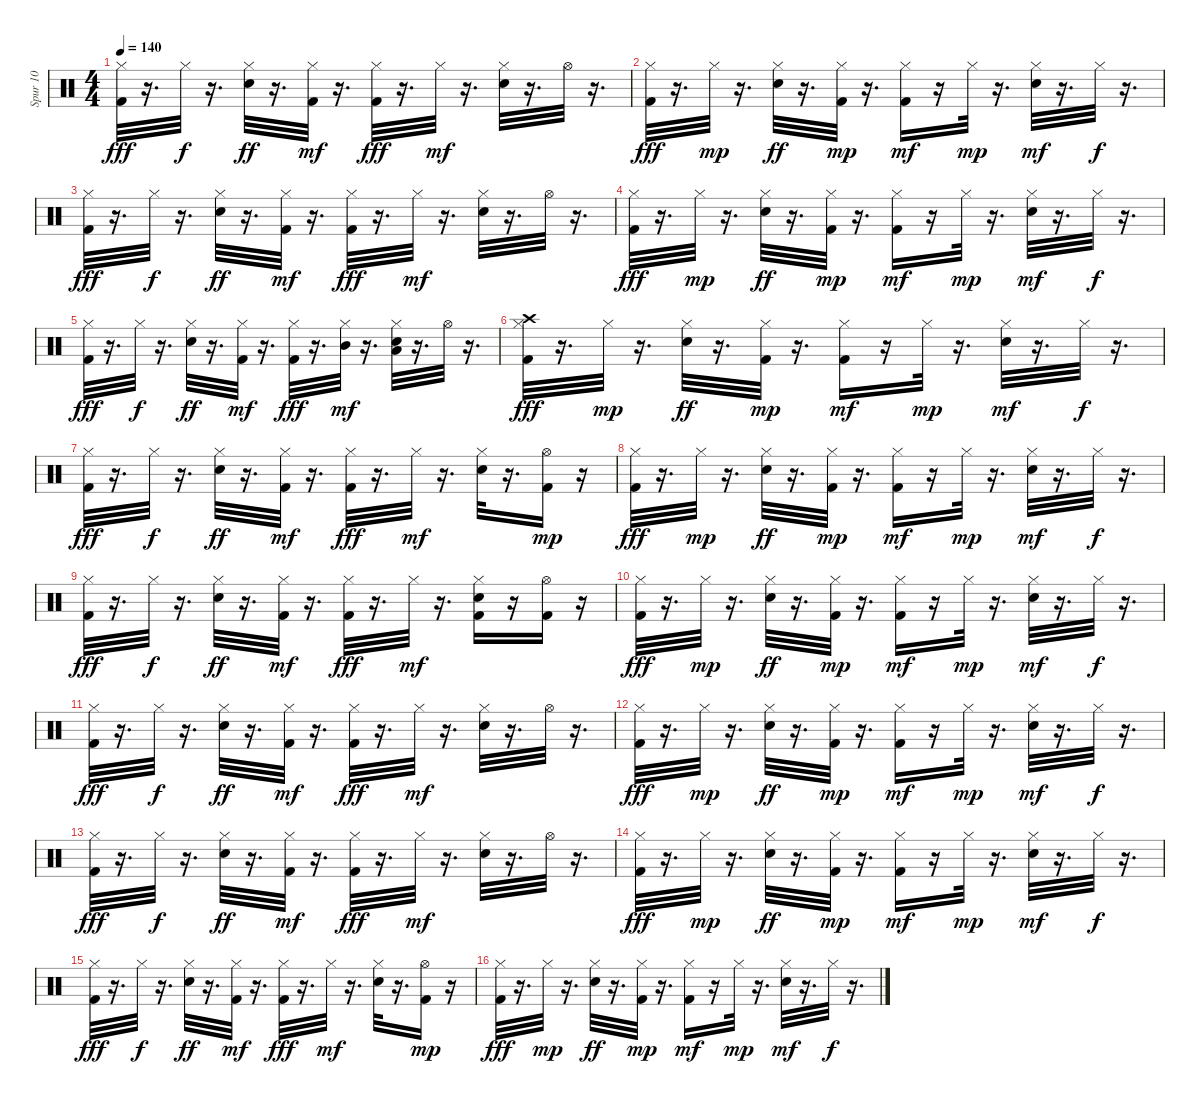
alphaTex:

\track ("Spur 10" "Spur 10") {instrument percussion}
\staff {score}
\articulation defaults
\ts (4 4)
\tempo 140
\clef neutral
\ks c
("Hi-Hat (closed)" "Kick (hit) 2").32{dy fff} r.16{d} "Hi-Hat (closed)".32{dy f} r.16{d} ("Hi-Hat (closed)" "Snare (hit) 2").32{dy ff} r.16{d} ("Kick (hit) 2" "Hi-Hat (closed)").32{dy mf} r.16{d} ("Hi-Hat (closed)" "Kick (hit) 2").32{dy fff} r.16{d} "Hi-Hat (closed)".32{dy mf} r.16{d} ("Snare (hit) 2" "Hi-Hat (closed)").32 r.16{d} "Hi-Hat (open)".32 r.16{d} |
("Hi-Hat (closed)" "Kick (hit) 2").32{dy fff} r.16{d} "Hi-Hat (closed)".32{dy mp} r.16{d} ("Hi-Hat (closed)" "Snare (hit) 2").32{dy ff} r.16{d} ("Kick (hit) 2" "Hi-Hat (closed)").32{dy mp} r.16{d} ("Kick (hit) 2" "Hi-Hat (closed)").16{dy mf} r.16 "Hi-Hat (closed)".32{dy mp} r.16{d} ("Snare (hit) 2" "Hi-Hat (closed)").32{dy mf} r.16{d} "Hi-Hat (closed)".32{dy f} r.16{d} |
("Hi-Hat (closed)" "Kick (hit) 2").32{dy fff} r.16{d} "Hi-Hat (closed)".32{dy f} r.16{d} ("Hi-Hat (closed)" "Snare (hit) 2").32{dy ff} r.16{d} ("Kick (hit) 2" "Hi-Hat (closed)").32{dy mf} r.16{d} ("Hi-Hat (closed)" "Kick (hit) 2").32{dy fff} r.16{d} "Hi-Hat (closed)".32{dy mf} r.16{d} ("Snare (hit) 2" "Hi-Hat (closed)").32 r.16{d} "Hi-Hat (open)".32 r.16{d} |
("Hi-Hat (closed)" "Kick (hit) 2").32{dy fff} r.16{d} "Hi-Hat (closed)".32{dy mp} r.16{d} ("Hi-Hat (closed)" "Snare (hit) 2").32{dy ff} r.16{d} ("Kick (hit) 2" "Hi-Hat (closed)").32{dy mp} r.16{d} ("Kick (hit) 2" "Hi-Hat (closed)").16{dy mf} r.16 "Hi-Hat (closed)".32{dy mp} r.16{d} ("Snare (hit) 2" "Hi-Hat (closed)").32{dy mf} r.16{d} "Hi-Hat (closed)".32{dy f} r.16{d} |
("Hi-Hat (closed)" "Kick (hit) 2").32{dy fff} r.16{d} "Hi-Hat (closed)".32{dy f} r.16{d} ("Hi-Hat (closed)" "Snare (hit) 2").32{dy ff} r.16{d} ("Kick (hit) 2" "Hi-Hat (closed)").32{dy mf} r.16{d} ("Hi-Hat (closed)" "Kick (hit) 2").32{dy fff} r.16{d} ("Mid Tom (hit)" "Hi-Hat (closed)").32{dy mf} r.16{d} ("Low Tom (hit)" "Snare (hit) 2" "Hi-Hat (closed)").32 r.16{d} "Hi-Hat (open)".32 r.16{d} |
("Crash high (hit)" "Hi-Hat (closed)" "Kick (hit) 2").32{dy fff} r.16{d} "Hi-Hat (closed)".32{dy mp} r.16{d} ("Hi-Hat (closed)" "Snare (hit) 2").32{dy ff} r.16{d} ("Kick (hit) 2" "Hi-Hat (closed)").32{dy mp} r.16{d} ("Kick (hit) 2" "Hi-Hat (closed)").16{dy mf} r.16 "Hi-Hat (closed)".32{dy mp} r.16{d} ("Snare (hit) 2" "Hi-Hat (closed)").32{dy mf} r.16{d} "Hi-Hat (closed)".32{dy f} r.16{d} |
("Hi-Hat (closed)" "Kick (hit) 2").32{dy fff} r.16{d} "Hi-Hat (closed)".32{dy f} r.16{d} ("Hi-Hat (closed)" "Snare (hit) 2").32{dy ff} r.16{d} ("Kick (hit) 2" "Hi-Hat (closed)").32{dy mf} r.16{d} ("Hi-Hat (closed)" "Kick (hit) 2").32{dy fff} r.16{d} "Hi-Hat (closed)".32{dy mf} r.16{d} ("Snare (hit) 2" "Hi-Hat (closed)").32 r.16{d} ("Hi-Hat (open)" "Kick (hit) 2").16{dy mp} r.16 |
("Hi-Hat (closed)" "Kick (hit) 2").32{dy fff} r.16{d} "Hi-Hat (closed)".32{dy mp} r.16{d} ("Hi-Hat (closed)" "Snare (hit) 2").32{dy ff} r.16{d} ("Kick (hit) 2" "Hi-Hat (closed)").32{dy mp} r.16{d} ("Kick (hit) 2" "Hi-Hat (closed)").16{dy mf} r.16 "Hi-Hat (closed)".32{dy mp} r.16{d} ("Snare (hit) 2" "Hi-Hat (closed)").32{dy mf} r.16{d} "Hi-Hat (closed)".32{dy f} r.16{d} |
("Hi-Hat (closed)" "Kick (hit) 2").32{dy fff} r.16{d} "Hi-Hat (closed)".32{dy f} r.16{d} ("Hi-Hat (closed)" "Snare (hit) 2").32{dy ff} r.16{d} ("Kick (hit) 2" "Hi-Hat (closed)").32{dy mf} r.16{d} ("Hi-Hat (closed)" "Kick (hit) 2").32{dy fff} r.16{d} "Hi-Hat (closed)".32{dy mf} r.16{d} ("Kick (hit) 2" "Snare (hit) 2" "Hi-Hat (closed)").16 r.16 ("Kick (hit) 2" "Hi-Hat (open)").16 r.16 |
("Hi-Hat (closed)" "Kick (hit) 2").32{dy fff} r.16{d} "Hi-Hat (closed)".32{dy mp} r.16{d} ("Hi-Hat (closed)" "Snare (hit) 2").32{dy ff} r.16{d} ("Kick (hit) 2" "Hi-Hat (closed)").32{dy mp} r.16{d} ("Kick (hit) 2" "Hi-Hat (closed)").16{dy mf} r.16 "Hi-Hat (closed)".32{dy mp} r.16{d} ("Snare (hit) 2" "Hi-Hat (closed)").32{dy mf} r.16{d} "Hi-Hat (closed)".32{dy f} r.16{d} |
("Hi-Hat (closed)" "Kick (hit) 2").32{dy fff} r.16{d} "Hi-Hat (closed)".32{dy f} r.16{d} ("Hi-Hat (closed)" "Snare (hit) 2").32{dy ff} r.16{d} ("Kick (hit) 2" "Hi-Hat (closed)").32{dy mf} r.16{d} ("Hi-Hat (closed)" "Kick (hit) 2").32{dy fff} r.16{d} "Hi-Hat (closed)".32{dy mf} r.16{d} ("Snare (hit) 2" "Hi-Hat (closed)").32 r.16{d} "Hi-Hat (open)".32 r.16{d} |
("Hi-Hat (closed)" "Kick (hit) 2").32{dy fff} r.16{d} "Hi-Hat (closed)".32{dy mp} r.16{d} ("Hi-Hat (closed)" "Snare (hit) 2").32{dy ff} r.16{d} ("Kick (hit) 2" "Hi-Hat (closed)").32{dy mp} r.16{d} ("Kick (hit) 2" "Hi-Hat (closed)").16{dy mf} r.16 "Hi-Hat (closed)".32{dy mp} r.16{d} ("Snare (hit) 2" "Hi-Hat (closed)").32{dy mf} r.16{d} "Hi-Hat (closed)".32{dy f} r.16{d} |
("Hi-Hat (closed)" "Kick (hit) 2").32{dy fff} r.16{d} "Hi-Hat (closed)".32{dy f} r.16{d} ("Hi-Hat (closed)" "Snare (hit) 2").32{dy ff} r.16{d} ("Kick (hit) 2" "Hi-Hat (closed)").32{dy mf} r.16{d} ("Hi-Hat (closed)" "Kick (hit) 2").32{dy fff} r.16{d} "Hi-Hat (closed)".32{dy mf} r.16{d} ("Snare (hit) 2" "Hi-Hat (closed)").32 r.16{d} "Hi-Hat (open)".32 r.16{d} |
("Hi-Hat (closed)" "Kick (hit) 2").32{dy fff} r.16{d} "Hi-Hat (closed)".32{dy mp} r.16{d} ("Hi-Hat (closed)" "Snare (hit) 2").32{dy ff} r.16{d} ("Kick (hit) 2" "Hi-Hat (closed)").32{dy mp} r.16{d} ("Kick (hit) 2" "Hi-Hat (closed)").16{dy mf} r.16 "Hi-Hat (closed)".32{dy mp} r.16{d} ("Snare (hit) 2" "Hi-Hat (closed)").32{dy mf} r.16{d} "Hi-Hat (closed)".32{dy f} r.16{d} |
("Hi-Hat (closed)" "Kick (hit) 2").32{dy fff} r.16{d} "Hi-Hat (closed)".32{dy f} r.16{d} ("Hi-Hat (closed)" "Snare (hit) 2").32{dy ff} r.16{d} ("Kick (hit) 2" "Hi-Hat (closed)").32{dy mf} r.16{d} ("Hi-Hat (closed)" "Kick (hit) 2").32{dy fff} r.16{d} "Hi-Hat (closed)".32{dy mf} r.16{d} ("Snare (hit) 2" "Hi-Hat (closed)").32 r.16{d} ("Hi-Hat (open)" "Kick (hit) 2").16{dy mp} r.16 |
("Hi-Hat (closed)" "Kick (hit) 2").32{dy fff} r.16{d} "Hi-Hat (closed)".32{dy mp} r.16{d} ("Hi-Hat (closed)" "Snare (hit) 2").32{dy ff} r.16{d} ("Kick (hit) 2" "Hi-Hat (closed)").32{dy mp} r.16{d} ("Kick (hit) 2" "Hi-Hat (closed)").16{dy mf} r.16 "Hi-Hat (closed)".32{dy mp} r.16{d} ("Snare (hit) 2" "Hi-Hat (closed)").32{dy mf} r.16{d} "Hi-Hat (closed)".32{dy f} r.16{d}
